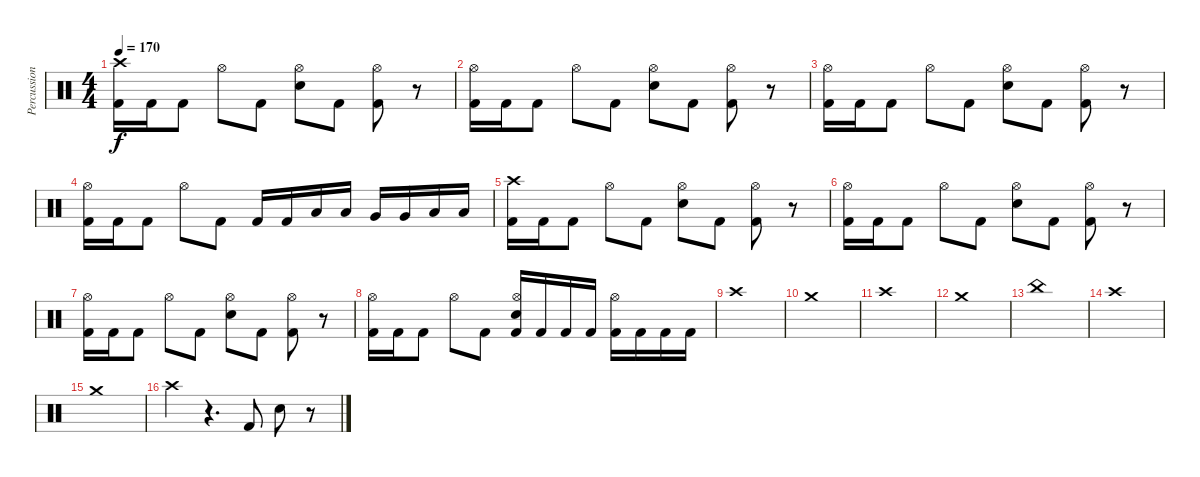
\track ("Percussion" "Percussion") {instrument percussion}
\staff {score}
\articulation defaults
\ts (4 4)
\tempo 170
\clef neutral
\ks c
("Crash high (hit)" "Kick (hit) 2").16{dy f} "Kick (hit) 2".16 "Kick (hit) 2".8 "Hi-Hat (open)".8 "Kick (hit) 2".8 ("Hi-Hat (open)" "Snare (hit) 2").8 "Kick (hit) 2".8 ("Hi-Hat (open)" "Kick (hit) 2").8 r.8 |
("Hi-Hat (open)" "Kick (hit) 2").16 "Kick (hit) 2".16 "Kick (hit) 2".8 "Hi-Hat (open)".8 "Kick (hit) 2".8 ("Hi-Hat (open)" "Snare (hit) 2").8 "Kick (hit) 2".8 ("Hi-Hat (open)" "Kick (hit) 2").8 r.8 |
("Hi-Hat (open)" "Kick (hit) 2").16 "Kick (hit) 2".16 "Kick (hit) 2".8 "Hi-Hat (open)".8 "Kick (hit) 2".8 ("Hi-Hat (open)" "Snare (hit) 2").8 "Kick (hit) 2".8 ("Hi-Hat (open)" "Kick (hit) 2").8 r.8 |
("Hi-Hat (open)" "Kick (hit) 2").16 "Kick (hit) 2".16 "Kick (hit) 2".8 "Hi-Hat (open)".8 "Kick (hit) 2".8 "Kick (hit) 2".16 "Kick (hit) 2".16 "Low Tom (hit)".16 "Low Tom (hit)".16 "Very Low Tom (hit)".16 "Very Low Tom (hit)".16 "Low Floor Tom (hit)".16 "Low Floor Tom (hit)".16 |
("Crash high (hit)" "Kick (hit) 2").16 "Kick (hit) 2".16 "Kick (hit) 2".8 "Hi-Hat (open)".8 "Kick (hit) 2".8 ("Hi-Hat (open)" "Snare (hit) 2").8 "Kick (hit) 2".8 ("Hi-Hat (open)" "Kick (hit) 2").8 r.8 |
("Hi-Hat (open)" "Kick (hit) 2").16 "Kick (hit) 2".16 "Kick (hit) 2".8 "Hi-Hat (open)".8 "Kick (hit) 2".8 ("Hi-Hat (open)" "Snare (hit) 2").8 "Kick (hit) 2".8 ("Hi-Hat (open)" "Kick (hit) 2").8 r.8 |
("Hi-Hat (open)" "Kick (hit) 2").16 "Kick (hit) 2".16 "Kick (hit) 2".8 "Hi-Hat (open)".8 "Kick (hit) 2".8 ("Hi-Hat (open)" "Snare (hit) 2").8 "Kick (hit) 2".8 ("Hi-Hat (open)" "Kick (hit) 2").8 r.8 |
("Hi-Hat (open)" "Kick (hit) 2").16 "Kick (hit) 2".16 "Kick (hit) 2".8 "Hi-Hat (open)".8 "Kick (hit) 2".8 ("Hi-Hat (open)" "Snare (hit) 2" "Kick (hit) 2").16 "Kick (hit) 2".16 "Kick (hit) 2".16 "Kick (hit) 2".16 ("Hi-Hat (open)" "Kick (hit) 2").16 "Kick (hit) 2".16 "Kick (hit) 2".16 "Kick (hit) 2".16 |
"Crash high (hit)".1 |
"Crash medium (hit)".1 |
"Crash high (hit)".1 |
"Crash medium (hit)".1 |
"China (hit)".1 |
"Crash high (hit)".1 |
"Crash medium (hit)".1 |
"Crash high (hit)".4 r.4{d} "Kick (hit) 2".8 "Snare (hit) 2".8 r.8
